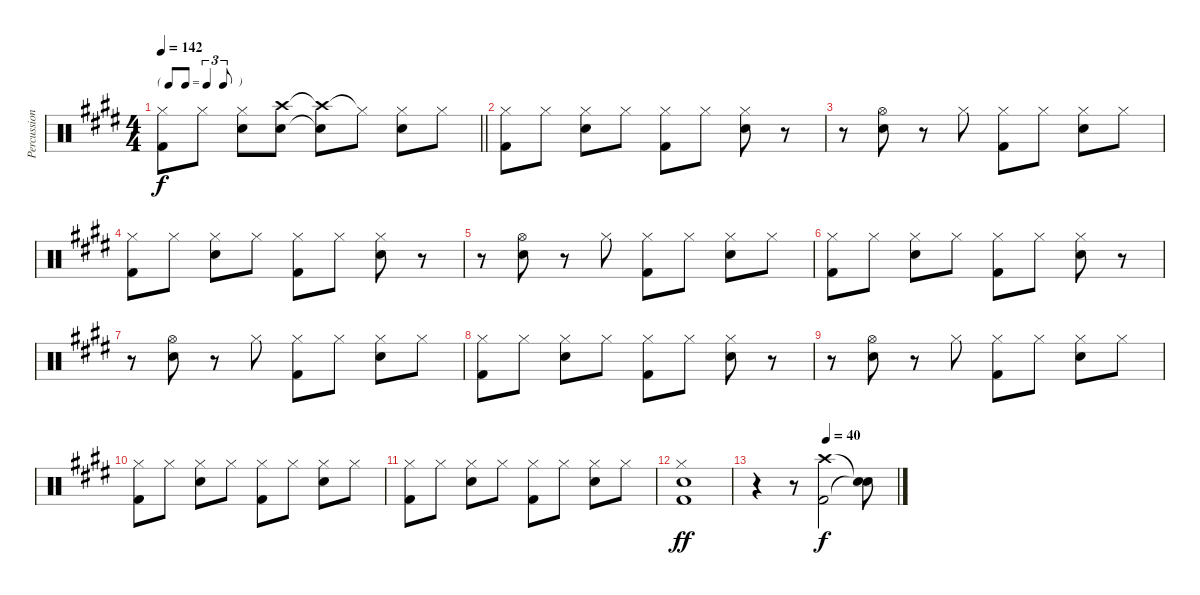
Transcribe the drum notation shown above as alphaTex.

\track ("Percussion" "Percussion") {instrument percussion}
\staff {score}
\articulation defaults
\ts (4 4)
\tf triplet8th
\tempo 142
\clef neutral
\barLineRight lightlight
\ks e
("Hi-Hat (closed)" "Kick (hit) 2").8{dy f} "Hi-Hat (closed)".8 ("Hi-Hat (closed)" "Snare (hit) 2").8 ("Crash high (hit)" "Snare (hit) 2").8 ("Crash high (hit)"{t} "Snare (hit) 2"{t}).8 "Hi-Hat (closed)"{t}.8 ("Hi-Hat (closed)" "Snare (hit) 2").8 "Hi-Hat (closed)".8 |
("Hi-Hat (closed)" "Kick (hit) 2").8 "Hi-Hat (closed)".8 ("Hi-Hat (closed)" "Snare (hit) 2").8 "Hi-Hat (closed)".8 ("Hi-Hat (closed)" "Kick (hit) 2").8 "Hi-Hat (closed)".8 ("Hi-Hat (closed)" "Snare (hit) 2").8 r.8 |
r.8 ("Hi-Hat (open)" "Snare (hit) 2").8 r.8 "Hi-Hat (closed)".8 ("Hi-Hat (closed)" "Kick (hit) 2").8 "Hi-Hat (closed)".8 ("Hi-Hat (closed)" "Snare (hit) 2").8 "Hi-Hat (closed)".8 |
("Hi-Hat (closed)" "Kick (hit) 2").8 "Hi-Hat (closed)".8 ("Hi-Hat (closed)" "Snare (hit) 2").8 "Hi-Hat (closed)".8 ("Hi-Hat (closed)" "Kick (hit) 2").8 "Hi-Hat (closed)".8 ("Hi-Hat (closed)" "Snare (hit) 2").8 r.8 |
r.8 ("Hi-Hat (open)" "Snare (hit) 2").8 r.8 "Hi-Hat (closed)".8 ("Hi-Hat (closed)" "Kick (hit) 2").8 "Hi-Hat (closed)".8 ("Hi-Hat (closed)" "Snare (hit) 2").8 "Hi-Hat (closed)".8 |
("Hi-Hat (closed)" "Kick (hit) 2").8 "Hi-Hat (closed)".8 ("Hi-Hat (closed)" "Snare (hit) 2").8 "Hi-Hat (closed)".8 ("Hi-Hat (closed)" "Kick (hit) 2").8 "Hi-Hat (closed)".8 ("Hi-Hat (closed)" "Snare (hit) 2").8 r.8 |
r.8 ("Hi-Hat (open)" "Snare (hit) 2").8 r.8 "Hi-Hat (closed)".8 ("Hi-Hat (closed)" "Kick (hit) 2").8 "Hi-Hat (closed)".8 ("Hi-Hat (closed)" "Snare (hit) 2").8 "Hi-Hat (closed)".8 |
("Hi-Hat (closed)" "Kick (hit) 2").8 "Hi-Hat (closed)".8 ("Hi-Hat (closed)" "Snare (hit) 2").8 "Hi-Hat (closed)".8 ("Hi-Hat (closed)" "Kick (hit) 2").8 "Hi-Hat (closed)".8 ("Hi-Hat (closed)" "Snare (hit) 2").8 r.8 |
r.8 ("Hi-Hat (open)" "Snare (hit) 2").8 r.8 "Hi-Hat (closed)".8 ("Hi-Hat (closed)" "Kick (hit) 2").8 "Hi-Hat (closed)".8 ("Hi-Hat (closed)" "Snare (hit) 2").8 "Hi-Hat (closed)".8 |
("Hi-Hat (closed)" "Kick (hit) 2").8 "Hi-Hat (closed)".8 ("Hi-Hat (closed)" "Snare (hit) 2").8 "Hi-Hat (closed)".8 ("Hi-Hat (closed)" "Kick (hit) 2").8 "Hi-Hat (closed)".8 ("Hi-Hat (closed)" "Snare (hit) 2").8 "Hi-Hat (closed)".8 |
("Hi-Hat (closed)" "Kick (hit) 2").8 "Hi-Hat (closed)".8 ("Hi-Hat (closed)" "Snare (hit) 2").8 "Hi-Hat (closed)".8 ("Hi-Hat (closed)" "Kick (hit) 2").8 "Hi-Hat (closed)".8 ("Hi-Hat (closed)" "Snare (hit) 2").8 "Hi-Hat (closed)".8 |
("Hi-Hat (closed)" "Snare (hit) 2" "Kick (hit) 2").1{dy ff} |
\tempo (40 0.5)
r.4 r.8 ("Crash high (hit)" "Kick (hit) 2").2{dy f} ("Snare (hit)"{t} "Snare (hit)"{t}).8
